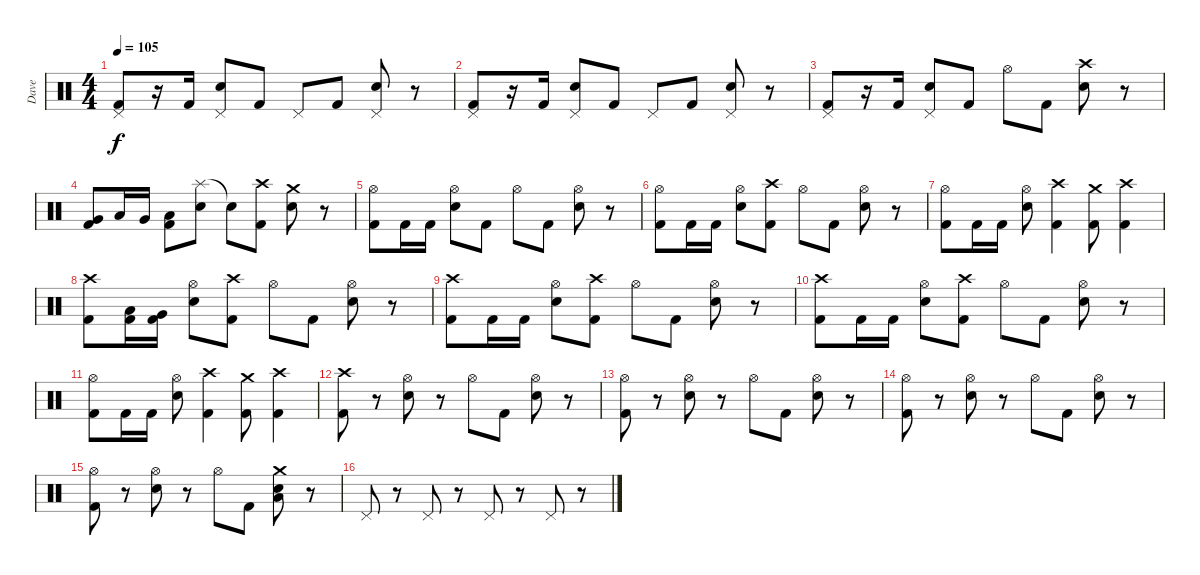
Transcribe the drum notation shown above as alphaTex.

\track ("Dave" "Dave") {instrument percussion}
\staff {score}
\articulation defaults
\ts (4 4)
\tempo 105
\clef neutral
\ks c
("Pedal Hi-Hat (hit)" "Kick (hit) 2").8{dy f} r.16 "Kick (hit) 2".16 ("Pedal Hi-Hat (hit)" "Snare (hit) 2").8 "Kick (hit) 2".8 "Pedal Hi-Hat (hit)".8 "Kick (hit) 2".8 ("Pedal Hi-Hat (hit)" "Snare (hit) 2").8 r.8 |
("Pedal Hi-Hat (hit)" "Kick (hit) 2").8 r.16 "Kick (hit) 2".16 ("Pedal Hi-Hat (hit)" "Snare (hit) 2").8 "Kick (hit) 2".8 "Pedal Hi-Hat (hit)".8 "Kick (hit) 2".8 ("Pedal Hi-Hat (hit)" "Snare (hit) 2").8 r.8 |
("Pedal Hi-Hat (hit)" "Kick (hit) 2").8 r.16 "Kick (hit) 2".16 ("Pedal Hi-Hat (hit)" "Snare (hit) 2").8 "Kick (hit) 2".8 "Hi-Hat (open)".8 "Kick (hit) 2".8 ("Crash high (hit)" "Snare (hit) 2").8 r.8 |
("Very Low Tom (hit)" "Kick (hit) 2").8 "Low Floor Tom (hit)".16 "Very Low Tom (hit)".16 ("Low Floor Tom (hit)" "Kick (hit) 2").8 ("Splash (hit)" "Snare (hit) 2").8 "Snare (hit)"{t}.8 ("Crash high (hit)" "Kick (hit) 2").8 ("Crash medium (hit)" "Snare (hit) 2").8 r.8 |
("Hi-Hat (open)" "Kick (hit) 2").8 "Kick (hit) 2".16 "Kick (hit) 2".16 ("Hi-Hat (open)" "Snare (hit) 2").8 "Kick (hit) 2".8 "Hi-Hat (open)".8 "Kick (hit) 2".8 ("Hi-Hat (open)" "Snare (hit) 2").8 r.8 |
("Hi-Hat (open)" "Kick (hit) 2").8 "Kick (hit) 2".16 "Kick (hit) 2".16 ("Hi-Hat (open)" "Snare (hit) 2").8 ("Crash high (hit)" "Kick (hit) 2").8 "Hi-Hat (open)".8 "Kick (hit) 2".8 ("Hi-Hat (open)" "Snare (hit) 2").8 r.8 |
("Hi-Hat (open)" "Kick (hit) 2").8 "Kick (hit) 2".16 "Kick (hit) 2".16 ("Hi-Hat (open)" "Snare (hit) 2").8 ("Crash high (hit)" "Kick (hit) 2").4 ("Crash medium (hit)" "Kick (hit) 2").8 ("Crash high (hit)" "Kick (hit) 2").4 |
("Crash high (hit)" "Kick (hit) 2").8 ("Low Tom (hit)" "Kick (hit) 2").16 ("Very Low Tom (hit)" "Kick (hit) 2").16 ("Hi-Hat (open)" "Snare (hit) 2").8 ("Crash high (hit)" "Kick (hit) 2").8 "Hi-Hat (open)".8 "Kick (hit) 2".8 ("Hi-Hat (open)" "Snare (hit) 2").8 r.8 |
("Crash high (hit)" "Kick (hit) 2").8 "Kick (hit) 2".16 "Kick (hit) 2".16 ("Hi-Hat (open)" "Snare (hit) 2").8 ("Crash high (hit)" "Kick (hit) 2").8 "Hi-Hat (open)".8 "Kick (hit) 2".8 ("Hi-Hat (open)" "Snare (hit) 2").8 r.8 |
("Crash high (hit)" "Kick (hit) 2").8 "Kick (hit) 2".16 "Kick (hit) 2".16 ("Hi-Hat (open)" "Snare (hit) 2").8 ("Crash high (hit)" "Kick (hit) 2").8 "Hi-Hat (open)".8 "Kick (hit) 2".8 ("Hi-Hat (open)" "Snare (hit) 2").8 r.8 |
("Hi-Hat (open)" "Kick (hit) 2").8 "Kick (hit) 2".16 "Kick (hit) 2".16 ("Hi-Hat (open)" "Snare (hit) 2").8 ("Crash high (hit)" "Kick (hit) 2").4 ("Crash medium (hit)" "Kick (hit) 2").8 ("Crash high (hit)" "Kick (hit) 2").4 |
("Crash high (hit)" "Kick (hit) 2").8 r.8 ("Hi-Hat (open)" "Snare (hit) 2").8 r.8 "Hi-Hat (open)".8 "Kick (hit) 2".8 ("Hi-Hat (open)" "Snare (hit) 2").8 r.8 |
("Hi-Hat (open)" "Kick (hit) 2").8 r.8 ("Hi-Hat (open)" "Snare (hit) 2").8 r.8 "Hi-Hat (open)".8 "Kick (hit) 2".8 ("Hi-Hat (open)" "Snare (hit) 2").8 r.8 |
("Hi-Hat (open)" "Kick (hit) 2").8 r.8 ("Hi-Hat (open)" "Snare (hit) 2").8 r.8 "Hi-Hat (open)".8 "Kick (hit) 2".8 ("Hi-Hat (open)" "Snare (hit) 2").8 r.8 |
("Hi-Hat (open)" "Kick (hit) 2").8 r.8 ("Hi-Hat (open)" "Snare (hit) 2").8 r.8 "Hi-Hat (open)".8 "Kick (hit) 2".8 ("Crash medium (hit)" "Snare (hit) 2" "Low Floor Tom (hit)").8 r.8 |
"Pedal Hi-Hat (hit)".8 r.8 "Pedal Hi-Hat (hit)".8 r.8 "Pedal Hi-Hat (hit)".8 r.8 "Pedal Hi-Hat (hit)".8 r.8
